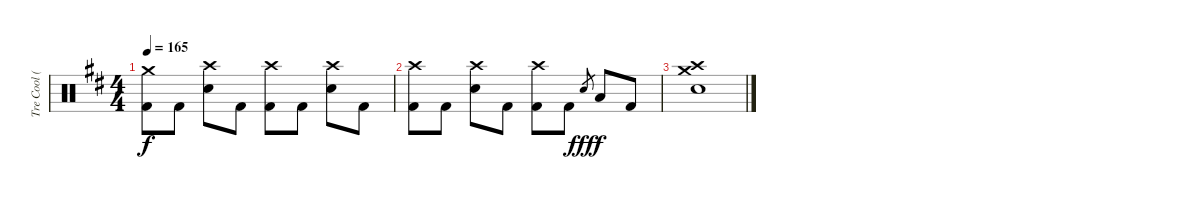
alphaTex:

\track ("Tre Cool (Drums)" "Tre Cool (") {instrument percussion}
\staff {score}
\articulation defaults
\ts (4 4)
\tempo 165
\clef neutral
\ks d
("Crash medium (hit)" "Kick (hit) 2").8{dy f} "Kick (hit) 2".8 ("Crash high (hit)" "Electric Snare (hit)").8 "Kick (hit) 2".8 ("Crash high (hit)" "Kick (hit) 2").8 "Kick (hit) 2".8 ("Crash high (hit)" "Electric Snare (hit)").8 "Kick (hit) 2".8 |
("Crash high (hit)" "Kick (hit) 2").8 "Kick (hit) 2".8 ("Crash high (hit)" "Electric Snare (hit)").8 "Kick (hit) 2".8 ("Crash high (hit)" "Kick (hit) 2").8 "Kick (hit) 2".8 "Electric Snare (hit)".8{gr dy fff} "Low Tom (hit)".8{dy f} "Kick (hit) 2".8 |
("Crash medium (hit)" "Crash high (hit)" "Hand Clap (hit)").1
